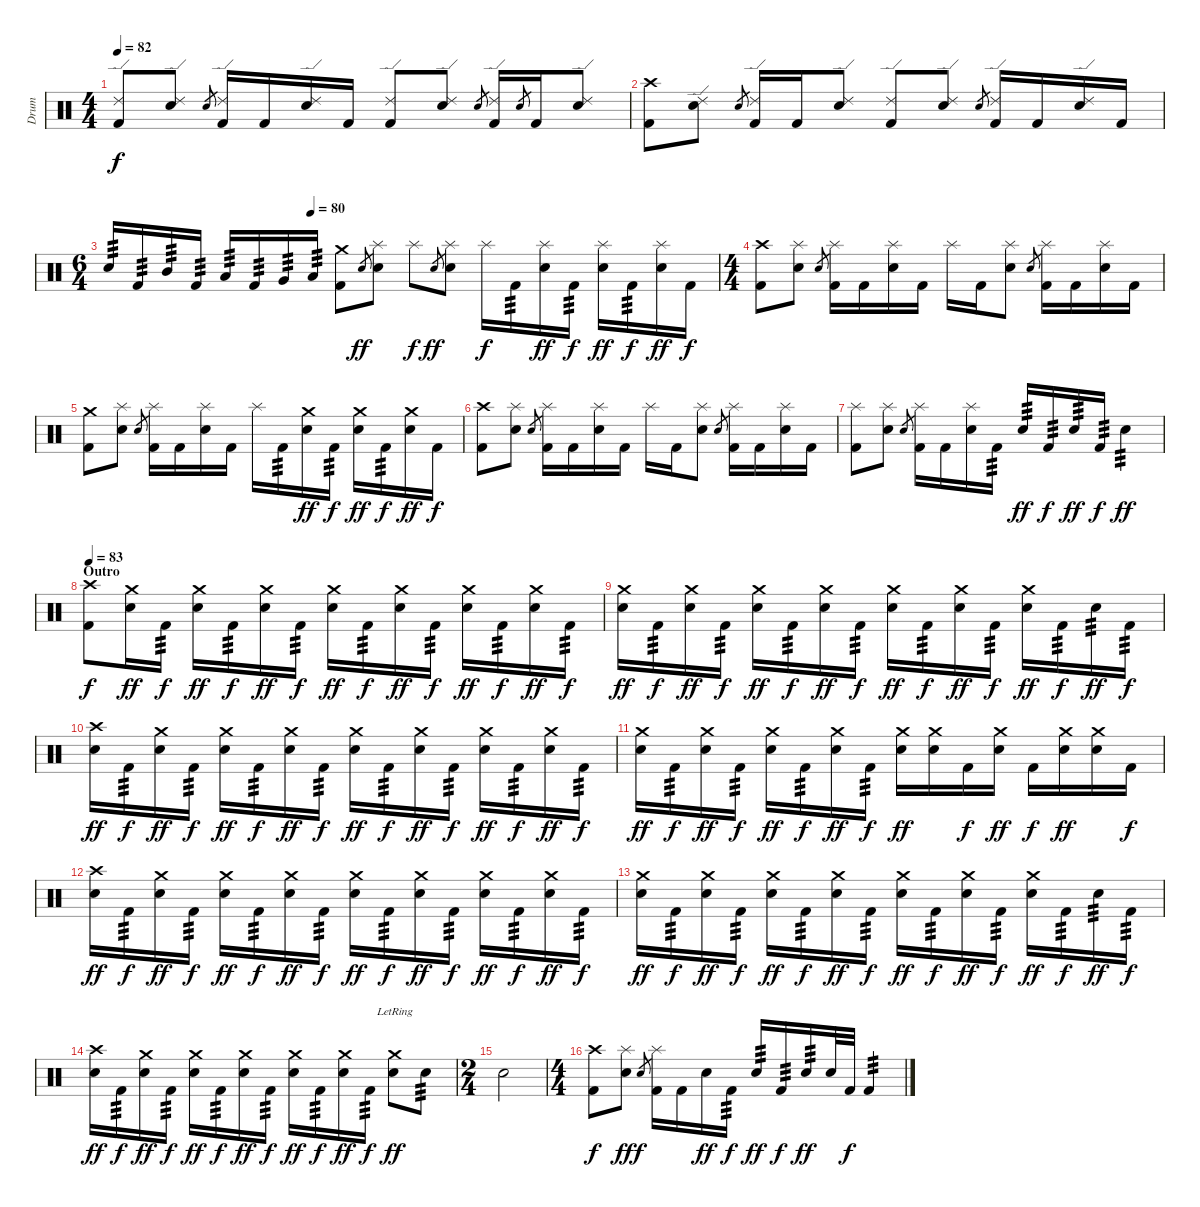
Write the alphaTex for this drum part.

\track ("Drum" "Drum") {instrument percussion}
\staff {score}
\articulation defaults
\ts (4 4)
\tempo 82
\clef neutral
\ks c
("Ride (edge) 2" "Kick (hit) 2").8{dy f} ("Ride (edge) 2" "Electric Snare (hit)").8 "Electric Snare (hit)".8{gr} ("Ride (edge) 2" "Kick (hit) 2").16 "Kick (hit) 2".16 ("Ride (edge) 2" "Electric Snare (hit)").16 "Kick (hit) 2".16 ("Ride (edge) 2" "Kick (hit) 2").8 ("Ride (edge) 2" "Electric Snare (hit)").8 "Electric Snare (hit)".8{gr} ("Ride (edge) 2" "Kick (hit) 2").16 "Electric Snare (hit)".8{gr} "Kick (hit) 2".16 ("Ride (edge) 2" "Electric Snare (hit)").8 |
("Kick (hit) 2" "Crash high (hit)").8 ("Ride (edge) 2" "Electric Snare (hit)").8 "Electric Snare (hit)".8{gr} ("Ride (edge) 2" "Kick (hit) 2").16 "Kick (hit) 2".16 ("Ride (edge) 2" "Electric Snare (hit)").8 ("Ride (edge) 2" "Kick (hit) 2").8 ("Ride (edge) 2" "Electric Snare (hit)").8 "Electric Snare (hit)".8{gr} ("Ride (edge) 2" "Kick (hit) 2").16 "Kick (hit) 2".16 ("Ride (edge) 2" "Electric Snare (hit)").16 "Kick (hit) 2".16 |
\ts (6 4)
\tempo (80 0.3333333333333333)
"Electric Snare (hit)".16{tp 3} "Kick (hit) 2".16{tp 3} "Mid Tom (hit)".16{tp 3} "Kick (hit) 2".16{tp 3} "Low Tom (hit)".16{tp 3} "Kick (hit) 2".16{tp 3} "Very Low Tom (hit)".16{tp 3} "Low Floor Tom (hit)".16{tp 3} ("Kick (hit) 2" "Crash medium (hit)").8 "Electric Snare (hit)".8{gr dy ff} ("Splash (hit)" "Electric Snare (hit)").8 "Splash (hit)".8{dy f} "Electric Snare (hit)".8{gr dy ff} ("Splash (hit)" "Electric Snare (hit)").8 "Splash (hit)".16{dy f} "Kick (hit) 2".16{tp 3} ("Splash (hit)" "Electric Snare (hit)").16{dy ff} "Kick (hit) 2".16{tp 3 dy f} ("Splash (hit)" "Electric Snare (hit)").16{dy ff} "Kick (hit) 2".16{tp 3 dy f} ("Splash (hit)" "Electric Snare (hit)").16{dy ff} "Kick (hit) 2".16{dy f} |
\ts (4 4)
\section ("" "")
("Kick (hit) 2" "Crash high (hit)").8 ("Splash (hit)" "Electric Snare (hit)").8 "Electric Snare (hit)".8{gr} ("Splash (hit)" "Kick (hit) 2").16 "Kick (hit) 2".16 ("Splash (hit)" "Electric Snare (hit)").16 "Kick (hit) 2".16 "Splash (hit)".16 "Kick (hit) 2".16 ("Splash (hit)" "Electric Snare (hit)").8 "Electric Snare (hit)".8{gr} ("Splash (hit)" "Kick (hit) 2").16 "Kick (hit) 2".16 ("Splash (hit)" "Electric Snare (hit)").16 "Kick (hit) 2".16 |
("Kick (hit) 2" "Crash medium (hit)").8 ("Splash (hit)" "Electric Snare (hit)").8 "Electric Snare (hit)".8{gr} ("Splash (hit)" "Kick (hit) 2").16 "Kick (hit) 2".16 ("Splash (hit)" "Electric Snare (hit)").16 "Kick (hit) 2".16 "Splash (hit)".16 "Kick (hit) 2".16{tp 3} ("Electric Snare (hit)" "Crash medium (hit)").16{dy ff} "Kick (hit) 2".16{tp 3 dy f} ("Electric Snare (hit)" "Crash medium (hit)").16{dy ff} "Kick (hit) 2".16{tp 3 dy f} ("Electric Snare (hit)" "Crash medium (hit)").16{dy ff} "Kick (hit) 2".16{dy f} |
("Kick (hit) 2" "Crash high (hit)").8 ("Splash (hit)" "Electric Snare (hit)").8 "Electric Snare (hit)".8{gr} ("Splash (hit)" "Kick (hit) 2").16 "Kick (hit) 2".16 ("Splash (hit)" "Electric Snare (hit)").16 "Kick (hit) 2".16 "Splash (hit)".16 "Kick (hit) 2".16 ("Splash (hit)" "Electric Snare (hit)").8 "Electric Snare (hit)".8{gr} ("Splash (hit)" "Kick (hit) 2").16 "Kick (hit) 2".16 ("Splash (hit)" "Electric Snare (hit)").16 "Kick (hit) 2".16 |
("Splash (hit)" "Kick (hit) 2").8 ("Splash (hit)" "Electric Snare (hit)").8 "Electric Snare (hit)".8{gr} ("Splash (hit)" "Kick (hit) 2").16 "Kick (hit) 2".16 ("Splash (hit)" "Electric Snare (hit)").16 "Kick (hit) 2".16{tp 3} "Electric Snare (hit)".16{tp 3 dy ff} "Kick (hit) 2".16{tp 3 dy f} "Electric Snare (hit)".16{tp 3 dy ff} "Kick (hit) 2".16{tp 3 dy f} "Electric Snare (hit)".4{tp 3 dy ff} |
\section ("" "Outro")
\tempo 83
("Kick (hit) 2" "Crash high (hit)").8{dy f} ("Electric Snare (hit)" "Crash medium (hit)").16{dy ff} "Kick (hit) 2".16{tp 3 dy f} ("Electric Snare (hit)" "Crash medium (hit)").16{dy ff} "Kick (hit) 2".16{tp 3 dy f} ("Electric Snare (hit)" "Crash medium (hit)").16{dy ff} "Kick (hit) 2".16{tp 3 dy f} ("Electric Snare (hit)" "Crash medium (hit)").16{dy ff} "Kick (hit) 2".16{tp 3 dy f} ("Electric Snare (hit)" "Crash medium (hit)").16{dy ff} "Kick (hit) 2".16{tp 3 dy f} ("Electric Snare (hit)" "Crash medium (hit)").16{dy ff} "Kick (hit) 2".16{tp 3 dy f} ("Electric Snare (hit)" "Crash medium (hit)").16{dy ff} "Kick (hit) 2".16{tp 3 dy f} |
("Electric Snare (hit)" "Crash medium (hit)").16{dy ff} "Kick (hit) 2".16{tp 3 dy f} ("Electric Snare (hit)" "Crash medium (hit)").16{dy ff} "Kick (hit) 2".16{tp 3 dy f} ("Electric Snare (hit)" "Crash medium (hit)").16{dy ff} "Kick (hit) 2".16{tp 3 dy f} ("Electric Snare (hit)" "Crash medium (hit)").16{dy ff} "Kick (hit) 2".16{tp 3 dy f} ("Electric Snare (hit)" "Crash medium (hit)").16{dy ff} "Kick (hit) 2".16{tp 3 dy f} ("Electric Snare (hit)" "Crash medium (hit)").16{dy ff} "Kick (hit) 2".16{tp 3 dy f} ("Electric Snare (hit)" "Crash medium (hit)").16{dy ff} "Kick (hit) 2".16{tp 3 dy f} "Electric Snare (hit)".16{tp 3 dy ff} "Kick (hit) 2".16{tp 3 dy f} |
("Electric Snare (hit)" "Crash high (hit)").16{dy ff} "Kick (hit) 2".16{tp 3 dy f} ("Electric Snare (hit)" "Crash medium (hit)").16{dy ff} "Kick (hit) 2".16{tp 3 dy f} ("Electric Snare (hit)" "Crash medium (hit)").16{dy ff} "Kick (hit) 2".16{tp 3 dy f} ("Electric Snare (hit)" "Crash medium (hit)").16{dy ff} "Kick (hit) 2".16{tp 3 dy f} ("Electric Snare (hit)" "Crash medium (hit)").16{dy ff} "Kick (hit) 2".16{tp 3 dy f} ("Electric Snare (hit)" "Crash medium (hit)").16{dy ff} "Kick (hit) 2".16{tp 3 dy f} ("Electric Snare (hit)" "Crash medium (hit)").16{dy ff} "Kick (hit) 2".16{tp 3 dy f} ("Electric Snare (hit)" "Crash medium (hit)").16{dy ff} "Kick (hit) 2".16{tp 3 dy f} |
("Electric Snare (hit)" "Crash medium (hit)").16{dy ff} "Kick (hit) 2".16{tp 3 dy f} ("Electric Snare (hit)" "Crash medium (hit)").16{dy ff} "Kick (hit) 2".16{tp 3 dy f} ("Electric Snare (hit)" "Crash medium (hit)").16{dy ff} "Kick (hit) 2".16{tp 3 dy f} ("Electric Snare (hit)" "Crash medium (hit)").16{dy ff} "Kick (hit) 2".16{tp 3 dy f} ("Electric Snare (hit)" "Crash medium (hit)").16{dy ff} ("Electric Snare (hit)" "Crash medium (hit)").16 "Kick (hit) 2".16{dy f} ("Electric Snare (hit)" "Crash medium (hit)").16{dy ff} "Kick (hit) 2".16{dy f} ("Electric Snare (hit)" "Crash medium (hit)").16{dy ff} ("Electric Snare (hit)" "Crash medium (hit)").16 "Kick (hit) 2".16{dy f} |
\section ("" "")
("Electric Snare (hit)" "Crash high (hit)").16{dy ff} "Kick (hit) 2".16{tp 3 dy f} ("Electric Snare (hit)" "Crash medium (hit)").16{dy ff} "Kick (hit) 2".16{tp 3 dy f} ("Electric Snare (hit)" "Crash medium (hit)").16{dy ff} "Kick (hit) 2".16{tp 3 dy f} ("Electric Snare (hit)" "Crash medium (hit)").16{dy ff} "Kick (hit) 2".16{tp 3 dy f} ("Electric Snare (hit)" "Crash medium (hit)").16{dy ff} "Kick (hit) 2".16{tp 3 dy f} ("Electric Snare (hit)" "Crash medium (hit)").16{dy ff} "Kick (hit) 2".16{tp 3 dy f} ("Electric Snare (hit)" "Crash medium (hit)").16{dy ff} "Kick (hit) 2".16{tp 3 dy f} ("Electric Snare (hit)" "Crash medium (hit)").16{dy ff} "Kick (hit) 2".16{tp 3 dy f} |
("Electric Snare (hit)" "Crash medium (hit)").16{dy ff} "Kick (hit) 2".16{tp 3 dy f} ("Electric Snare (hit)" "Crash medium (hit)").16{dy ff} "Kick (hit) 2".16{tp 3 dy f} ("Electric Snare (hit)" "Crash medium (hit)").16{dy ff} "Kick (hit) 2".16{tp 3 dy f} ("Electric Snare (hit)" "Crash medium (hit)").16{dy ff} "Kick (hit) 2".16{tp 3 dy f} ("Electric Snare (hit)" "Crash medium (hit)").16{dy ff} "Kick (hit) 2".16{tp 3 dy f} ("Electric Snare (hit)" "Crash medium (hit)").16{dy ff} "Kick (hit) 2".16{tp 3 dy f} ("Electric Snare (hit)" "Crash medium (hit)").16{dy ff} "Kick (hit) 2".16{tp 3 dy f} "Electric Snare (hit)".16{tp 3 dy ff} "Kick (hit) 2".16{tp 3 dy f} |
("Electric Snare (hit)" "Crash high (hit)").16{dy ff} "Kick (hit) 2".16{tp 3 dy f} ("Electric Snare (hit)" "Crash medium (hit)").16{dy ff} "Kick (hit) 2".16{tp 3 dy f} ("Electric Snare (hit)" "Crash medium (hit)").16{dy ff} "Kick (hit) 2".16{tp 3 dy f} ("Electric Snare (hit)" "Crash medium (hit)").16{dy ff} "Kick (hit) 2".16{tp 3 dy f} ("Electric Snare (hit)" "Crash medium (hit)").16{dy ff} "Kick (hit) 2".16{tp 3 dy f} ("Electric Snare (hit)" "Crash medium (hit)").16{dy ff} "Kick (hit) 2".16{tp 3 dy f} ("Electric Snare (hit)" "Crash medium (hit)"{lr}).8{dy ff} "Electric Snare (hit)".8{tp 3} |
\ts (2 4)
"Electric Snare (hit)".2 |
\ts (4 4)
("Kick (hit) 2" "Crash high (hit)").8{dy f} ("Splash (hit)" "Electric Snare (hit)").8{dy ff} "Electric Snare (hit)".8{gr dy f} ("Splash (hit)" "Kick (hit) 2").16 "Kick (hit) 2".16 "Electric Snare (hit)".16{dy ff} "Kick (hit) 2".16{tp 3 dy f} "Electric Snare (hit)".16{tp 3 dy ff} "Kick (hit) 2".16{tp 3 dy f} "Electric Snare (hit)".16{tp 3 dy ff} "Electric Snare (hit)".32 "Kick (hit) 2".32{dy f} "Kick (hit) 2".4{tp 3}
